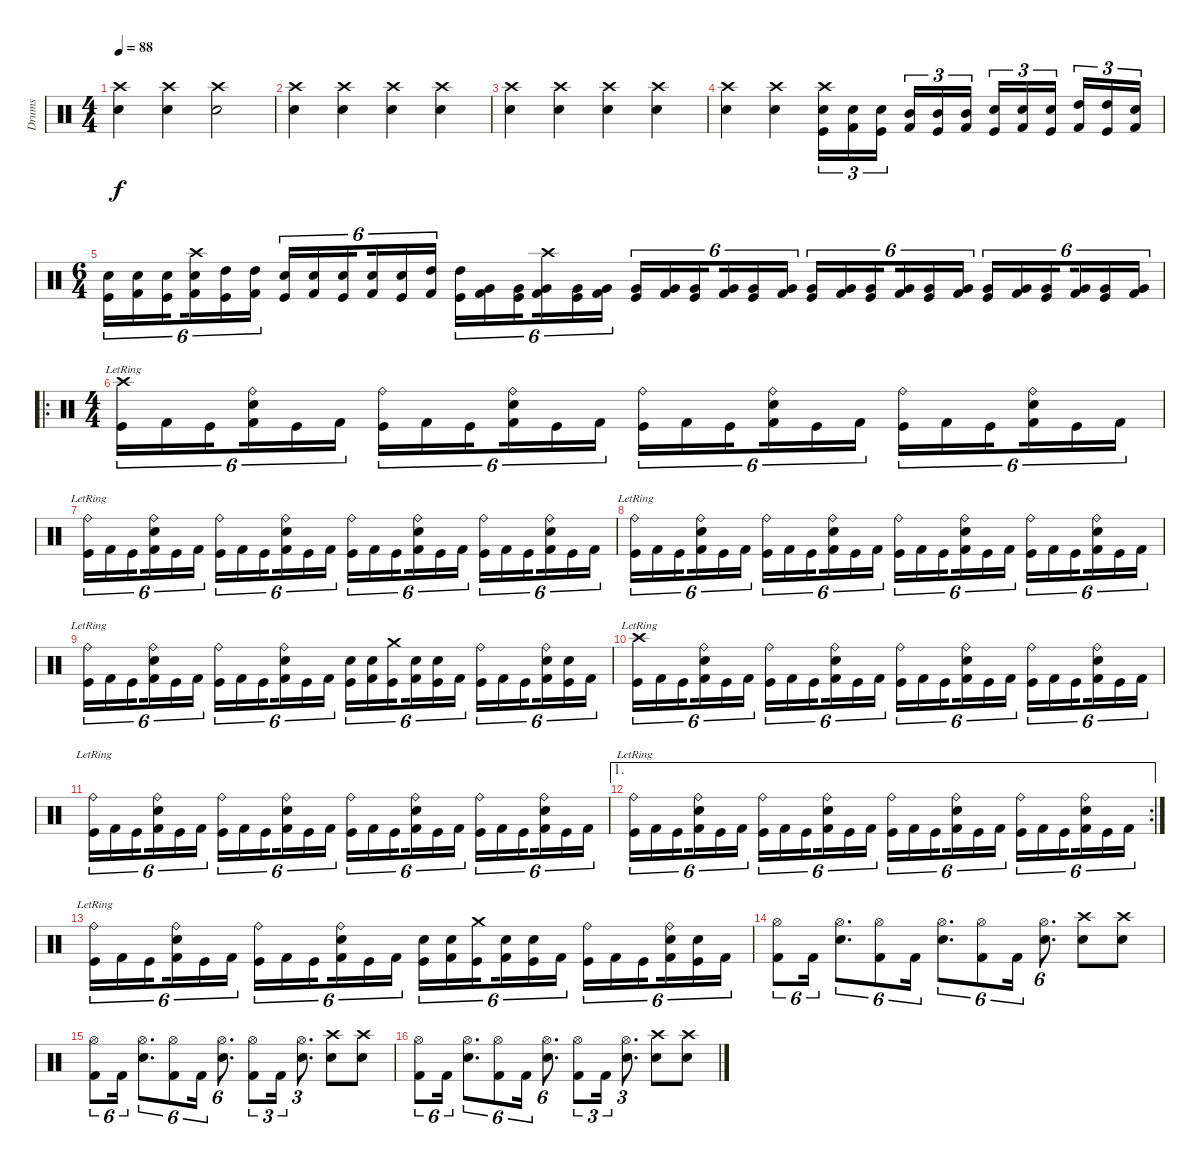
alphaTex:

\track ("Drums" "Drums") {instrument percussion}
\staff {score}
\articulation defaults
\ts (4 4)
\tempo 88
\clef neutral
\ks c
("Crash high (hit)" "Snare (hit) 2").4{dy f} ("Crash high (hit)" "Snare (hit) 2").4 ("Crash high (hit)" "Snare (hit) 2").2 |
("Crash high (hit)" "Snare (hit) 2").4 ("Crash high (hit)" "Snare (hit) 2").4 ("Crash high (hit)" "Snare (hit) 2").4 ("Crash high (hit)" "Snare (hit) 2").4 |
("Crash high (hit)" "Snare (hit) 2").4 ("Crash high (hit)" "Snare (hit) 2").4 ("Crash high (hit)" "Snare (hit) 2").4 ("Crash high (hit)" "Snare (hit) 2").4 |
("Crash high (hit)" "Snare (hit) 2").4 ("Crash high (hit)" "Snare (hit) 2").4 ("Crash high (hit)" "Snare (hit) 2" "Kick (hit)").16{tu (3 2)} ("Snare (hit) 2" "Kick (hit) 2").16{tu (3 2)} ("Snare (hit) 2" "Kick (hit)").16{tu (3 2) beam splitsecondary} ("Mid Tom (hit)" "Kick (hit) 2").16{tu (3 2)} ("Mid Tom (hit)" "Kick (hit)").16{tu (3 2)} ("Mid Tom (hit)" "Kick (hit) 2").16{tu (3 2)} ("Snare (hit) 2" "Kick (hit)").16{tu (3 2)} ("Snare (hit) 2" "Kick (hit) 2").16{tu (3 2)} ("Snare (hit) 2" "Kick (hit)").16{tu (3 2) beam splitsecondary} ("High Tom (hit)" "Kick (hit) 2").16{tu (3 2)} ("High Tom (hit)" "Kick (hit)").16{tu (3 2)} ("Snare (hit) 2" "Kick (hit) 2").16{tu (3 2)} |
\ts (6 4)
("Snare (hit) 2" "Kick (hit)").16{tu (6 4)} ("Snare (hit) 2" "Kick (hit) 2").16{tu (6 4)} ("Snare (hit) 2" "Kick (hit)").16{tu (6 4) beam splitsecondary} ("Crash high (hit)" "Snare (hit) 2" "Kick (hit) 2").16{tu (6 4)} ("High Tom (hit)" "Kick (hit)").16{tu (6 4)} ("High Tom (hit)" "Kick (hit) 2").16{tu (6 4) beam splitsecondary} ("Snare (hit) 2" "Kick (hit)").16{tu (6 4)} ("Snare (hit) 2" "Kick (hit) 2").16{tu (6 4)} ("Snare (hit) 2" "Kick (hit)").16{tu (6 4) beam splitsecondary} ("Snare (hit) 2" "Kick (hit) 2").16{tu (6 4)} ("Snare (hit) 2" "Kick (hit)").16{tu (6 4)} ("High Tom (hit)" "Kick (hit) 2").16{tu (6 4) beam splitsecondary} ("High Tom (hit)" "Kick (hit)").16{tu (6 4)} ("Very Low Tom (hit)" "Kick (hit) 2").16{tu (6 4)} ("Very Low Tom (hit)" "Kick (hit)").16{tu (6 4) beam splitsecondary} ("Crash high (hit)" "Very Low Tom (hit)" "Kick (hit) 2").16{tu (6 4)} ("Very Low Tom (hit)" "Kick (hit)").16{tu (6 4)} ("Very Low Tom (hit)" "Kick (hit) 2").16{tu (6 4)} ("Very Low Tom (hit)" "Kick (hit)").16{tu (6 4)} ("Very Low Tom (hit)" "Kick (hit) 2").16{tu (6 4)} ("Very Low Tom (hit)" "Kick (hit)").16{tu (6 4) beam splitsecondary} ("Very Low Tom (hit)" "Kick (hit) 2").16{tu (6 4)} ("Very Low Tom (hit)" "Kick (hit)").16{tu (6 4)} ("Very Low Tom (hit)" "Kick (hit) 2").16{tu (6 4) beam splitsecondary} ("Very Low Tom (hit)" "Kick (hit)").16{tu (6 4)} ("Very Low Tom (hit)" "Kick (hit) 2").16{tu (6 4)} ("Very Low Tom (hit)" "Kick (hit)").16{tu (6 4) beam splitsecondary} ("Very Low Tom (hit)" "Kick (hit) 2").16{tu (6 4)} ("Very Low Tom (hit)" "Kick (hit)").16{tu (6 4)} ("Very Low Tom (hit)" "Kick (hit) 2").16{tu (6 4) beam splitsecondary} ("Very Low Tom (hit)" "Kick (hit)").16{tu (6 4)} ("Very Low Tom (hit)" "Kick (hit) 2").16{tu (6 4)} ("Very Low Tom (hit)" "Kick (hit)").16{tu (6 4) beam splitsecondary} ("Very Low Tom (hit)" "Kick (hit) 2").16{tu (6 4)} ("Very Low Tom (hit)" "Kick (hit)").16{tu (6 4)} ("Very Low Tom (hit)" "Kick (hit) 2").16{tu (6 4)} |
\ro
\ts (4 4)
("Crash high (hit)"{lr} "Kick (hit)").16{tu (6 4)} "Kick (hit) 2".16{tu (6 4)} "Kick (hit)".16{tu (6 4) beam splitsecondary} ("Ride (bell)" "Snare (hit) 2" "Kick (hit) 2").16{tu (6 4)} "Kick (hit)".16{tu (6 4)} "Kick (hit) 2".16{tu (6 4)} ("Ride (bell)" "Kick (hit)").16{tu (6 4)} "Kick (hit) 2".16{tu (6 4)} "Kick (hit)".16{tu (6 4) beam splitsecondary} ("Ride (bell)" "Snare (hit) 2" "Kick (hit) 2").16{tu (6 4)} "Kick (hit)".16{tu (6 4)} "Kick (hit) 2".16{tu (6 4)} ("Ride (bell)" "Kick (hit)").16{tu (6 4)} "Kick (hit) 2".16{tu (6 4)} "Kick (hit)".16{tu (6 4) beam splitsecondary} ("Ride (bell)" "Snare (hit) 2" "Kick (hit) 2").16{tu (6 4)} "Kick (hit)".16{tu (6 4)} "Kick (hit) 2".16{tu (6 4)} ("Ride (bell)" "Kick (hit)").16{tu (6 4)} "Kick (hit) 2".16{tu (6 4)} "Kick (hit)".16{tu (6 4) beam splitsecondary} ("Ride (bell)" "Snare (hit) 2" "Kick (hit) 2").16{tu (6 4)} "Kick (hit)".16{tu (6 4)} "Kick (hit) 2".16{tu (6 4)} |
("Ride (bell)"{lr} "Kick (hit)").16{tu (6 4)} "Kick (hit) 2".16{tu (6 4)} "Kick (hit)".16{tu (6 4) beam splitsecondary} ("Ride (bell)" "Snare (hit) 2" "Kick (hit) 2").16{tu (6 4)} "Kick (hit)".16{tu (6 4)} "Kick (hit) 2".16{tu (6 4)} ("Ride (bell)" "Kick (hit)").16{tu (6 4)} "Kick (hit) 2".16{tu (6 4)} "Kick (hit)".16{tu (6 4) beam splitsecondary} ("Ride (bell)" "Snare (hit) 2" "Kick (hit) 2").16{tu (6 4)} "Kick (hit)".16{tu (6 4)} "Kick (hit) 2".16{tu (6 4)} ("Ride (bell)" "Kick (hit)").16{tu (6 4)} "Kick (hit) 2".16{tu (6 4)} "Kick (hit)".16{tu (6 4) beam splitsecondary} ("Ride (bell)" "Snare (hit) 2" "Kick (hit) 2").16{tu (6 4)} "Kick (hit)".16{tu (6 4)} "Kick (hit) 2".16{tu (6 4)} ("Ride (bell)" "Kick (hit)").16{tu (6 4)} "Kick (hit) 2".16{tu (6 4)} "Kick (hit)".16{tu (6 4) beam splitsecondary} ("Ride (bell)" "Snare (hit) 2" "Kick (hit) 2").16{tu (6 4)} "Kick (hit)".16{tu (6 4)} "Kick (hit) 2".16{tu (6 4)} |
("Ride (bell)"{lr} "Kick (hit)").16{tu (6 4)} "Kick (hit) 2".16{tu (6 4)} "Kick (hit)".16{tu (6 4) beam splitsecondary} ("Ride (bell)" "Snare (hit) 2" "Kick (hit) 2").16{tu (6 4)} "Kick (hit)".16{tu (6 4)} "Kick (hit) 2".16{tu (6 4)} ("Ride (bell)" "Kick (hit)").16{tu (6 4)} "Kick (hit) 2".16{tu (6 4)} "Kick (hit)".16{tu (6 4) beam splitsecondary} ("Ride (bell)" "Snare (hit) 2" "Kick (hit) 2").16{tu (6 4)} "Kick (hit)".16{tu (6 4)} "Kick (hit) 2".16{tu (6 4)} ("Ride (bell)" "Kick (hit)").16{tu (6 4)} "Kick (hit) 2".16{tu (6 4)} "Kick (hit)".16{tu (6 4) beam splitsecondary} ("Ride (bell)" "Snare (hit) 2" "Kick (hit) 2").16{tu (6 4)} "Kick (hit)".16{tu (6 4)} "Kick (hit) 2".16{tu (6 4)} ("Ride (bell)" "Kick (hit)").16{tu (6 4)} "Kick (hit) 2".16{tu (6 4)} "Kick (hit)".16{tu (6 4) beam splitsecondary} ("Ride (bell)" "Snare (hit) 2" "Kick (hit) 2").16{tu (6 4)} "Kick (hit)".16{tu (6 4)} "Kick (hit) 2".16{tu (6 4)} |
("Ride (bell)"{lr} "Kick (hit)").16{tu (6 4)} "Kick (hit) 2".16{tu (6 4)} "Kick (hit)".16{tu (6 4) beam splitsecondary} ("Ride (bell)" "Snare (hit) 2" "Kick (hit) 2").16{tu (6 4)} "Kick (hit)".16{tu (6 4)} "Kick (hit) 2".16{tu (6 4)} ("Ride (bell)" "Kick (hit)").16{tu (6 4)} "Kick (hit) 2".16{tu (6 4)} "Kick (hit)".16{tu (6 4) beam splitsecondary} ("Ride (bell)" "Snare (hit) 2" "Kick (hit) 2").16{tu (6 4)} "Kick (hit)".16{tu (6 4)} "Kick (hit) 2".16{tu (6 4)} ("Snare (hit) 2" "Kick (hit)").16{tu (6 4)} ("Snare (hit) 2" "Kick (hit) 2").16{tu (6 4)} ("Crash medium (hit)" "Kick (hit)").16{tu (6 4) beam splitsecondary} ("Snare (hit) 2" "Kick (hit) 2").16{tu (6 4)} ("Snare (hit) 2" "Kick (hit)").16{tu (6 4)} "Kick (hit) 2".16{tu (6 4)} ("Ride (bell)" "Kick (hit)").16{tu (6 4)} "Kick (hit) 2".16{tu (6 4)} "Kick (hit)".16{tu (6 4) beam splitsecondary} ("Ride (bell)" "Snare (hit) 2" "Kick (hit) 2").16{tu (6 4)} ("Snare (hit) 2" "Kick (hit)").16{tu (6 4)} "Kick (hit) 2".16{tu (6 4)} |
("Crash high (hit)"{lr} "Kick (hit)").16{tu (6 4)} "Kick (hit) 2".16{tu (6 4)} "Kick (hit)".16{tu (6 4) beam splitsecondary} ("Ride (bell)" "Snare (hit) 2" "Kick (hit) 2").16{tu (6 4)} "Kick (hit)".16{tu (6 4)} "Kick (hit) 2".16{tu (6 4)} ("Ride (bell)" "Kick (hit)").16{tu (6 4)} "Kick (hit) 2".16{tu (6 4)} "Kick (hit)".16{tu (6 4) beam splitsecondary} ("Ride (bell)" "Snare (hit) 2" "Kick (hit) 2").16{tu (6 4)} "Kick (hit)".16{tu (6 4)} "Kick (hit) 2".16{tu (6 4)} ("Ride (bell)" "Kick (hit)").16{tu (6 4)} "Kick (hit) 2".16{tu (6 4)} "Kick (hit)".16{tu (6 4) beam splitsecondary} ("Ride (bell)" "Snare (hit) 2" "Kick (hit) 2").16{tu (6 4)} "Kick (hit)".16{tu (6 4)} "Kick (hit) 2".16{tu (6 4)} ("Ride (bell)" "Kick (hit)").16{tu (6 4)} "Kick (hit) 2".16{tu (6 4)} "Kick (hit)".16{tu (6 4) beam splitsecondary} ("Ride (bell)" "Snare (hit) 2" "Kick (hit) 2").16{tu (6 4)} "Kick (hit)".16{tu (6 4)} "Kick (hit) 2".16{tu (6 4)} |
("Ride (bell)"{lr} "Kick (hit)").16{tu (6 4)} "Kick (hit) 2".16{tu (6 4)} "Kick (hit)".16{tu (6 4) beam splitsecondary} ("Ride (bell)" "Snare (hit) 2" "Kick (hit) 2").16{tu (6 4)} "Kick (hit)".16{tu (6 4)} "Kick (hit) 2".16{tu (6 4)} ("Ride (bell)" "Kick (hit)").16{tu (6 4)} "Kick (hit) 2".16{tu (6 4)} "Kick (hit)".16{tu (6 4) beam splitsecondary} ("Ride (bell)" "Snare (hit) 2" "Kick (hit) 2").16{tu (6 4)} "Kick (hit)".16{tu (6 4)} "Kick (hit) 2".16{tu (6 4)} ("Ride (bell)" "Kick (hit)").16{tu (6 4)} "Kick (hit) 2".16{tu (6 4)} "Kick (hit)".16{tu (6 4) beam splitsecondary} ("Ride (bell)" "Snare (hit) 2" "Kick (hit) 2").16{tu (6 4)} "Kick (hit)".16{tu (6 4)} "Kick (hit) 2".16{tu (6 4)} ("Ride (bell)" "Kick (hit)").16{tu (6 4)} "Kick (hit) 2".16{tu (6 4)} "Kick (hit)".16{tu (6 4) beam splitsecondary} ("Ride (bell)" "Snare (hit) 2" "Kick (hit) 2").16{tu (6 4)} "Kick (hit)".16{tu (6 4)} "Kick (hit) 2".16{tu (6 4)} |
\ae 1
\rc 2
("Ride (bell)"{lr} "Kick (hit)").16{tu (6 4)} "Kick (hit) 2".16{tu (6 4)} "Kick (hit)".16{tu (6 4) beam splitsecondary} ("Ride (bell)" "Snare (hit) 2" "Kick (hit) 2").16{tu (6 4)} "Kick (hit)".16{tu (6 4)} "Kick (hit) 2".16{tu (6 4)} ("Ride (bell)" "Kick (hit)").16{tu (6 4)} "Kick (hit) 2".16{tu (6 4)} "Kick (hit)".16{tu (6 4) beam splitsecondary} ("Ride (bell)" "Snare (hit) 2" "Kick (hit) 2").16{tu (6 4)} "Kick (hit)".16{tu (6 4)} "Kick (hit) 2".16{tu (6 4)} ("Ride (bell)" "Kick (hit)").16{tu (6 4)} "Kick (hit) 2".16{tu (6 4)} "Kick (hit)".16{tu (6 4) beam splitsecondary} ("Ride (bell)" "Snare (hit) 2" "Kick (hit) 2").16{tu (6 4)} "Kick (hit)".16{tu (6 4)} "Kick (hit) 2".16{tu (6 4)} ("Ride (bell)" "Kick (hit)").16{tu (6 4)} "Kick (hit) 2".16{tu (6 4)} "Kick (hit)".16{tu (6 4) beam splitsecondary} ("Ride (bell)" "Snare (hit) 2" "Kick (hit) 2").16{tu (6 4)} "Kick (hit)".16{tu (6 4)} "Kick (hit) 2".16{tu (6 4)} |
("Ride (bell)"{lr} "Kick (hit)").16{tu (6 4)} "Kick (hit) 2".16{tu (6 4)} "Kick (hit)".16{tu (6 4) beam splitsecondary} ("Ride (bell)" "Snare (hit) 2" "Kick (hit) 2").16{tu (6 4)} "Kick (hit)".16{tu (6 4)} "Kick (hit) 2".16{tu (6 4)} ("Ride (bell)" "Kick (hit)").16{tu (6 4)} "Kick (hit) 2".16{tu (6 4)} "Kick (hit)".16{tu (6 4) beam splitsecondary} ("Ride (bell)" "Snare (hit) 2" "Kick (hit) 2").16{tu (6 4)} "Kick (hit)".16{tu (6 4)} "Kick (hit) 2".16{tu (6 4)} ("Snare (hit) 2" "Kick (hit)").16{tu (6 4)} ("Snare (hit) 2" "Kick (hit) 2").16{tu (6 4)} ("Crash medium (hit)" "Kick (hit)").16{tu (6 4) beam splitsecondary} ("Snare (hit) 2" "Kick (hit) 2").16{tu (6 4)} ("Snare (hit) 2" "Kick (hit)").16{tu (6 4)} "Kick (hit) 2".16{tu (6 4)} ("Ride (bell)" "Kick (hit)").16{tu (6 4)} "Kick (hit) 2".16{tu (6 4)} "Kick (hit)".16{tu (6 4) beam splitsecondary} ("Ride (bell)" "Snare (hit) 2" "Kick (hit) 2").16{tu (6 4)} ("Snare (hit) 2" "Kick (hit)").16{tu (6 4)} "Kick (hit) 2".16{tu (6 4)} |
("Hi-Hat (open)" "Kick (hit) 2").8{tu (6 4)} "Kick (hit) 2".16{tu (6 4)} ("Hi-Hat (open)" "Snare (hit) 2").8{d tu (6 4)} ("Hi-Hat (open)" "Kick (hit) 2").8{tu (6 4)} "Kick (hit) 2".16{tu (6 4)} ("Hi-Hat (open)" "Snare (hit) 2").8{d tu (6 4)} ("Hi-Hat (open)" "Kick (hit) 2").8{tu (6 4)} "Kick (hit) 2".16{tu (6 4)} ("Hi-Hat (open)" "Snare (hit) 2").8{d tu (6 4)} ("Crash high (hit)" "Snare (hit) 2").8 ("Crash high (hit)" "Snare (hit) 2").8 |
("Hi-Hat (open)" "Kick (hit) 2").8{tu (6 4)} "Kick (hit) 2".16{tu (6 4)} ("Hi-Hat (open)" "Snare (hit) 2").8{d tu (6 4)} ("Hi-Hat (open)" "Kick (hit) 2").8{tu (6 4)} "Kick (hit) 2".16{tu (6 4)} ("Hi-Hat (open)" "Snare (hit) 2").8{d tu (6 4)} ("Hi-Hat (open)" "Kick (hit) 2").8{tu (3 2)} "Kick (hit) 2".16{tu (3 2)} ("Hi-Hat (open)" "Snare (hit) 2").8{d tu (3 2)} ("Crash high (hit)" "Snare (hit) 2").8 ("Crash high (hit)" "Snare (hit) 2").8 |
("Hi-Hat (open)" "Kick (hit) 2").8{tu (6 4)} "Kick (hit) 2".16{tu (6 4)} ("Hi-Hat (open)" "Snare (hit) 2").8{d tu (6 4)} ("Hi-Hat (open)" "Kick (hit) 2").8{tu (6 4)} "Kick (hit) 2".16{tu (6 4)} ("Hi-Hat (open)" "Snare (hit) 2").8{d tu (6 4)} ("Hi-Hat (open)" "Kick (hit) 2").8{tu (3 2)} "Kick (hit) 2".16{tu (3 2)} ("Hi-Hat (open)" "Snare (hit) 2").8{d tu (3 2)} ("Crash high (hit)" "Snare (hit) 2").8 ("Crash high (hit)" "Snare (hit) 2").8
